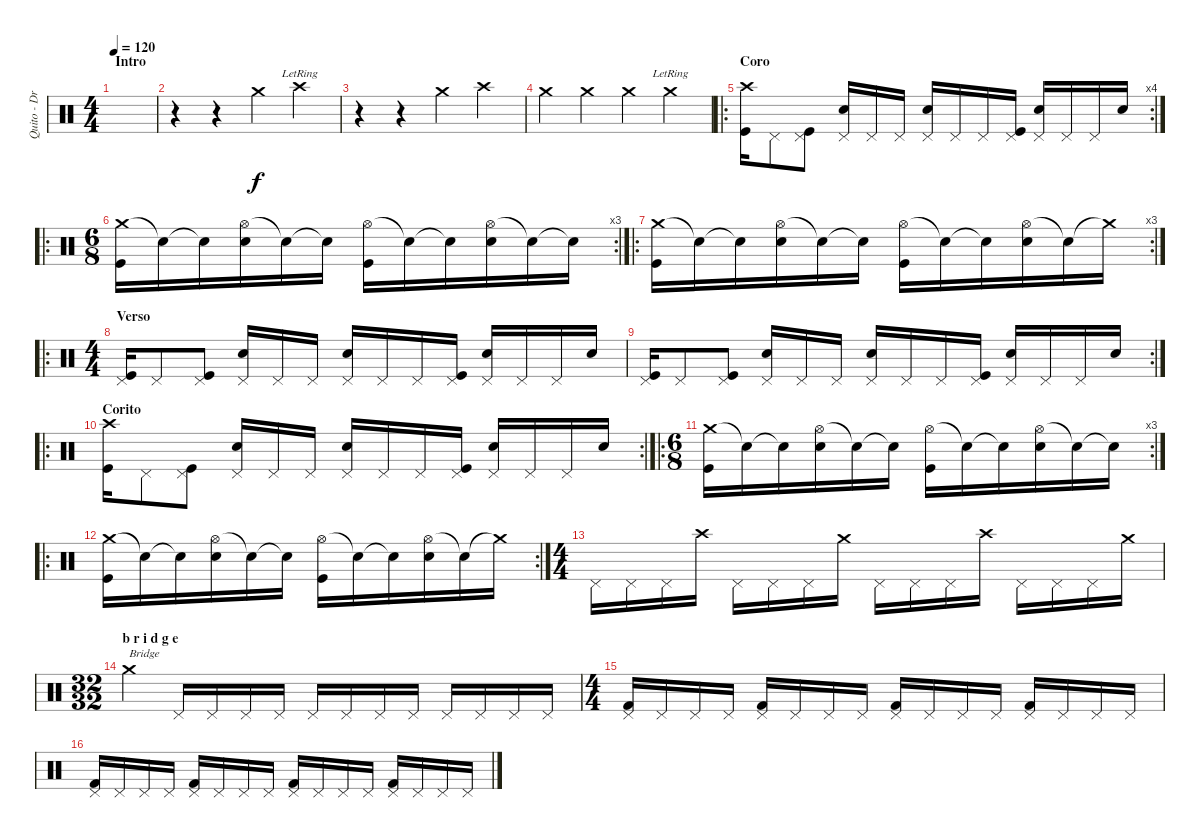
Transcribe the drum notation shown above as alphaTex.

\track ("Quito - Drums" "Quito - Dr") {instrument percussion}
\staff {score}
\articulation defaults
\ts (4 4)
\section ("" "Intro")
\tempo 120
\clef neutral
\ks c
|
r.4 r.4 "Crash medium (hit)".4 "Crash high (hit)"{lr}.4 |
r.4 r.4 "Crash medium (hit)".4 "Crash high (hit)".4 |
"Crash medium (hit)".4 "Crash medium (hit)".4 "Crash medium (hit)".4 "Crash medium (hit)"{lr}.4 |
\ro
\rc 4
\section ("" "Coro")
("Kick (hit)" "Crash high (hit)").16 "Pedal Hi-Hat (hit)".8 ("Kick (hit)" "Pedal Hi-Hat (hit)").8 ("Electric Snare (hit)" "Pedal Hi-Hat (hit)").16 "Pedal Hi-Hat (hit)".16 "Pedal Hi-Hat (hit)".16 ("Electric Snare (hit)" "Pedal Hi-Hat (hit)").16 "Pedal Hi-Hat (hit)".16 "Pedal Hi-Hat (hit)".16 ("Kick (hit)" "Pedal Hi-Hat (hit)").16 ("Electric Snare (hit)" "Pedal Hi-Hat (hit)").16 "Pedal Hi-Hat (hit)".16 "Pedal Hi-Hat (hit)".16 "Electric Snare (hit)".16 |
\ro
\rc 3
\ts (6 8)
("Crash medium (hit)" "Kick (hit)").16 "Snare (hit)"{t}.16 "Snare (hit)"{t}.16 ("Hi-Hat (open)" "Snare (hit) 2").16 "Snare (hit)"{t}.16 "Snare (hit)"{t}.16 ("Hi-Hat (open)" "Kick (hit)").16 "Snare (hit)"{t}.16 "Snare (hit)"{t}.16 ("Hi-Hat (open)" "Snare (hit) 2").16 "Snare (hit)"{t}.16 "Snare (hit)"{t}.16 |
\ro
\rc 3
("Crash medium (hit)" "Kick (hit)").16 "Snare (hit)"{t}.16 "Snare (hit)"{t}.16 ("Hi-Hat (open)" "Snare (hit) 2").16 "Snare (hit)"{t}.16 "Snare (hit)"{t}.16 ("Hi-Hat (open)" "Kick (hit)").16 "Snare (hit)"{t}.16 "Snare (hit)"{t}.16 ("Hi-Hat (open)" "Snare (hit) 2").16 "Snare (hit)"{t}.16 "Crash medium (hit)"{t}.16 |
\ro
\ts (4 4)
\section ("" "Verso")
("Kick (hit)" "Pedal Hi-Hat (hit)").16 "Pedal Hi-Hat (hit)".8 ("Kick (hit)" "Pedal Hi-Hat (hit)").8 ("Electric Snare (hit)" "Pedal Hi-Hat (hit)").16 "Pedal Hi-Hat (hit)".16 "Pedal Hi-Hat (hit)".16 ("Electric Snare (hit)" "Pedal Hi-Hat (hit)").16 "Pedal Hi-Hat (hit)".16 "Pedal Hi-Hat (hit)".16 ("Kick (hit)" "Pedal Hi-Hat (hit)").16 ("Electric Snare (hit)" "Pedal Hi-Hat (hit)").16 "Pedal Hi-Hat (hit)".16 "Pedal Hi-Hat (hit)".16 "Electric Snare (hit)".16 |
\rc 2
("Kick (hit)" "Pedal Hi-Hat (hit)").16 "Pedal Hi-Hat (hit)".8 ("Kick (hit)" "Pedal Hi-Hat (hit)").8 ("Electric Snare (hit)" "Pedal Hi-Hat (hit)").16 "Pedal Hi-Hat (hit)".16 "Pedal Hi-Hat (hit)".16 ("Electric Snare (hit)" "Pedal Hi-Hat (hit)").16 "Pedal Hi-Hat (hit)".16 "Pedal Hi-Hat (hit)".16 ("Kick (hit)" "Pedal Hi-Hat (hit)").16 ("Electric Snare (hit)" "Pedal Hi-Hat (hit)").16 "Pedal Hi-Hat (hit)".16 "Pedal Hi-Hat (hit)".16 "Electric Snare (hit)".16 |
\ro
\rc 2
\section ("" "Corito")
("Kick (hit)" "Crash high (hit)").16 "Pedal Hi-Hat (hit)".8 ("Kick (hit)" "Pedal Hi-Hat (hit)").8 ("Electric Snare (hit)" "Pedal Hi-Hat (hit)").16 "Pedal Hi-Hat (hit)".16 "Pedal Hi-Hat (hit)".16 ("Electric Snare (hit)" "Pedal Hi-Hat (hit)").16 "Pedal Hi-Hat (hit)".16 "Pedal Hi-Hat (hit)".16 ("Kick (hit)" "Pedal Hi-Hat (hit)").16 ("Electric Snare (hit)" "Pedal Hi-Hat (hit)").16 "Pedal Hi-Hat (hit)".16 "Pedal Hi-Hat (hit)".16 "Electric Snare (hit)".16 |
\ro
\rc 3
\ts (6 8)
("Crash medium (hit)" "Kick (hit)").16 "Snare (hit)"{t}.16 "Snare (hit)"{t}.16 ("Hi-Hat (open)" "Snare (hit) 2").16 "Snare (hit)"{t}.16 "Snare (hit)"{t}.16 ("Hi-Hat (open)" "Kick (hit)").16 "Snare (hit)"{t}.16 "Snare (hit)"{t}.16 ("Hi-Hat (open)" "Snare (hit) 2").16 "Snare (hit)"{t}.16 "Snare (hit)"{t}.16 |
\ro
\rc 2
("Crash medium (hit)" "Kick (hit)").16 "Snare (hit)"{t}.16 "Snare (hit)"{t}.16 ("Hi-Hat (open)" "Snare (hit) 2").16 "Snare (hit)"{t}.16 "Snare (hit)"{t}.16 ("Hi-Hat (open)" "Kick (hit)").16 "Snare (hit)"{t}.16 "Snare (hit)"{t}.16 ("Hi-Hat (open)" "Snare (hit) 2").16 "Snare (hit)"{t}.16 "Crash medium (hit)"{t}.16 |
\ts (4 4)
"Pedal Hi-Hat (hit)".16 "Pedal Hi-Hat (hit)".16 "Pedal Hi-Hat (hit)".16 "Crash high (hit)".16 "Pedal Hi-Hat (hit)".16 "Pedal Hi-Hat (hit)".16 "Pedal Hi-Hat (hit)".16 "Crash medium (hit)".16 "Pedal Hi-Hat (hit)".16 "Pedal Hi-Hat (hit)".16 "Pedal Hi-Hat (hit)".16 "Crash high (hit)".16 "Pedal Hi-Hat (hit)".16 "Pedal Hi-Hat (hit)".16 "Pedal Hi-Hat (hit)".16 "Crash medium (hit)".16 |
\ts (32 32)
\section ("" "b r i d g e")
"Crash medium (hit)".4{txt "Bridge"} "Pedal Hi-Hat (hit)".16 "Pedal Hi-Hat (hit)".16 "Pedal Hi-Hat (hit)".16 "Pedal Hi-Hat (hit)".16 "Pedal Hi-Hat (hit)".16 "Pedal Hi-Hat (hit)".16 "Pedal Hi-Hat (hit)".16 "Pedal Hi-Hat (hit)".16 "Pedal Hi-Hat (hit)".16 "Pedal Hi-Hat (hit)".16 "Pedal Hi-Hat (hit)".16 "Pedal Hi-Hat (hit)".16 |
\ts (4 4)
("Pedal Hi-Hat (hit)" "Kick (hit) 2").16 "Pedal Hi-Hat (hit)".16 "Pedal Hi-Hat (hit)".16 "Pedal Hi-Hat (hit)".16 ("Pedal Hi-Hat (hit)" "Kick (hit) 2").16 "Pedal Hi-Hat (hit)".16 "Pedal Hi-Hat (hit)".16 "Pedal Hi-Hat (hit)".16 ("Pedal Hi-Hat (hit)" "Kick (hit) 2").16 "Pedal Hi-Hat (hit)".16 "Pedal Hi-Hat (hit)".16 "Pedal Hi-Hat (hit)".16 ("Pedal Hi-Hat (hit)" "Kick (hit) 2").16 "Pedal Hi-Hat (hit)".16 "Pedal Hi-Hat (hit)".16 "Pedal Hi-Hat (hit)".16 |
("Pedal Hi-Hat (hit)" "Kick (hit) 2").16 "Pedal Hi-Hat (hit)".16 "Pedal Hi-Hat (hit)".16 "Pedal Hi-Hat (hit)".16 ("Pedal Hi-Hat (hit)" "Kick (hit) 2").16 "Pedal Hi-Hat (hit)".16 "Pedal Hi-Hat (hit)".16 "Pedal Hi-Hat (hit)".16 ("Pedal Hi-Hat (hit)" "Kick (hit) 2").16 "Pedal Hi-Hat (hit)".16 "Pedal Hi-Hat (hit)".16 "Pedal Hi-Hat (hit)".16 ("Pedal Hi-Hat (hit)" "Kick (hit) 2").16 "Pedal Hi-Hat (hit)".16 "Pedal Hi-Hat (hit)".16 "Pedal Hi-Hat (hit)".16
